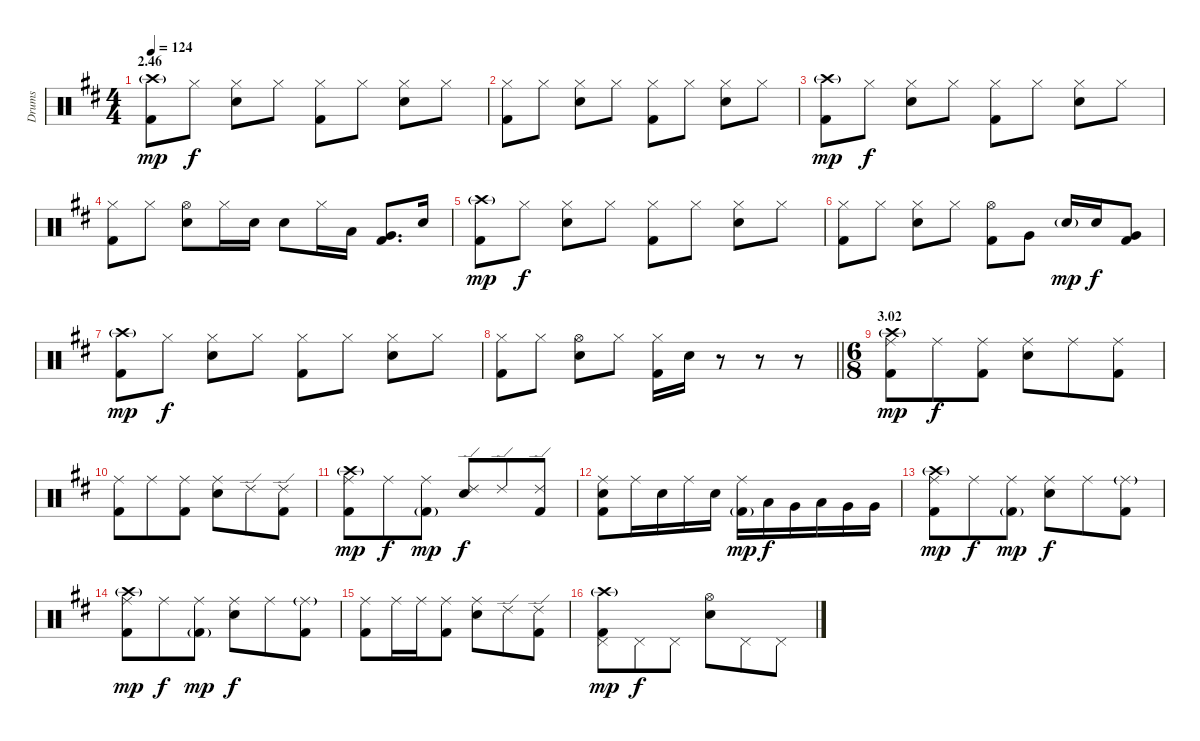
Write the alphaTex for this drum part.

\track ("Drums" "Drums") {instrument percussion}
\staff {score}
\articulation defaults
\ts (4 4)
\section ("" "2.46")
\tempo 124
\clef neutral
\ks d
("Crash high (hit)"{g} "Kick (hit) 2").8{dy mp} "Hi-Hat (closed)".8{dy f} ("Hi-Hat (closed)" "Electric Snare (hit)").8 "Hi-Hat (closed)".8 ("Hi-Hat (closed)" "Kick (hit) 2").8 "Hi-Hat (closed)".8 ("Hi-Hat (closed)" "Electric Snare (hit)").8 "Hi-Hat (closed)".8 |
("Hi-Hat (closed)" "Kick (hit) 2").8 "Hi-Hat (closed)".8 ("Hi-Hat (closed)" "Electric Snare (hit)").8 "Hi-Hat (closed)".8 ("Hi-Hat (closed)" "Kick (hit) 2").8 "Hi-Hat (closed)".8 ("Hi-Hat (closed)" "Electric Snare (hit)").8 "Hi-Hat (closed)".8 |
("Crash high (hit)"{g} "Kick (hit) 2").8{dy mp} "Hi-Hat (closed)".8{dy f} ("Hi-Hat (closed)" "Electric Snare (hit)").8 "Hi-Hat (closed)".8 ("Hi-Hat (closed)" "Kick (hit) 2").8 "Hi-Hat (closed)".8 ("Hi-Hat (closed)" "Electric Snare (hit)").8 "Hi-Hat (closed)".8 |
("Hi-Hat (closed)" "Kick (hit) 2").8 "Hi-Hat (closed)".8 ("Hi-Hat (open)" "Electric Snare (hit)").8 "Hi-Hat (closed)".16 "Electric Snare (hit)".16 "Electric Snare (hit)".8 "Hi-Hat (closed)".16 "Low Tom (hit)".16 ("Very Low Tom (hit)" "Kick (hit) 2").8{d} "Electric Snare (hit)".16 |
("Crash high (hit)"{g} "Kick (hit) 2").8{dy mp} "Hi-Hat (closed)".8{dy f} ("Hi-Hat (closed)" "Electric Snare (hit)").8 "Hi-Hat (closed)".8 ("Hi-Hat (closed)" "Kick (hit) 2").8 "Hi-Hat (closed)".8 ("Hi-Hat (closed)" "Electric Snare (hit)").8 "Hi-Hat (closed)".8 |
("Hi-Hat (closed)" "Kick (hit) 2").8 "Hi-Hat (closed)".8 ("Hi-Hat (closed)" "Electric Snare (hit)").8 "Hi-Hat (closed)".8 ("Hi-Hat (open)" "Kick (hit) 2").8 "Very Low Tom (hit)".8 "Electric Snare (hit)"{g}.16{dy mp} "Electric Snare (hit)".16{dy f} ("Very Low Tom (hit)" "Kick (hit) 2").8 |
("Crash high (hit)"{g} "Kick (hit) 2").8{dy mp} "Hi-Hat (closed)".8{dy f} ("Hi-Hat (closed)" "Electric Snare (hit)").8 "Hi-Hat (closed)".8 ("Hi-Hat (closed)" "Kick (hit) 2").8 "Hi-Hat (closed)".8 ("Hi-Hat (closed)" "Electric Snare (hit)").8 "Hi-Hat (closed)".8 |
\barLineRight lightlight
("Hi-Hat (closed)" "Kick (hit) 2").8 "Hi-Hat (closed)".8 ("Hi-Hat (open)" "Electric Snare (hit)").8 "Hi-Hat (closed)".8 ("Hi-Hat (closed)" "Kick (hit) 2").16 "Electric Snare (hit)".16 r.8 r.8 r.8 |
\ts (6 8)
\section ("" "3.02")
("Crash high (hit)"{g} "Ride (middle)" "Kick (hit) 2").8{dy mp} "Ride (middle)".8{dy f} ("Ride (middle)" "Kick (hit) 2").8 ("Ride (middle)" "Electric Snare (hit)").8 "Ride (middle)".8 ("Ride (middle)" "Kick (hit) 2").8 |
("Ride (middle)" "Kick (hit) 2").8 "Ride (middle)".8 ("Ride (middle)" "Kick (hit) 2").8 ("Ride (middle)" "Electric Snare (hit)").8 "Ride (edge) 2".8 ("Ride (edge) 2" "Kick (hit) 2").8 |
("Crash high (hit)"{g} "Ride (middle)" "Kick (hit) 2").8{dy mp} "Ride (middle)".8{dy f} ("Ride (middle)" "Kick (hit) 2"{g}).8{dy mp} ("Ride (edge) 2" "Electric Snare (hit)").8{dy f} "Ride (edge) 2".8 ("Ride (edge) 2" "Kick (hit) 2").8 |
("Ride (middle)" "Electric Snare (hit)" "Kick (hit) 2").8 "Ride (middle)".16 "Electric Snare (hit)".16 "Ride (middle)".16 "Electric Snare (hit)".16 ("Ride (middle)" "Kick (hit) 2"{g}).16{dy mp} "Low Tom (hit)".16{dy f} "Very Low Tom (hit)".16 "Low Tom (hit)".16 "Very Low Tom (hit)".16 "Very Low Tom (hit)".16 |
("Crash high (hit)"{g} "Ride (middle)" "Kick (hit) 2").8{dy mp} "Ride (middle)".8{dy f} ("Ride (middle)" "Kick (hit) 2"{g}).8{dy mp} ("Ride (middle)" "Electric Snare (hit)").8{dy f} "Ride (middle)".8 ("Ride (middle)"{g} "Kick (hit) 2").8 |
("Crash high (hit)"{g} "Ride (middle)" "Kick (hit) 2").8{dy mp} "Ride (middle)".8{dy f} ("Ride (middle)" "Kick (hit) 2"{g}).8{dy mp} ("Ride (middle)" "Electric Snare (hit)").8{dy f} "Ride (middle)".8 ("Ride (middle)"{g} "Kick (hit) 2").8 |
("Ride (middle)" "Kick (hit) 2").8 "Ride (middle)".16 "Ride (middle)".16 ("Ride (middle)" "Kick (hit) 2").8 ("Ride (middle)" "Electric Snare (hit)").8 "Ride (edge) 2".8 ("Ride (edge) 2" "Kick (hit) 2").8 |
("Crash high (hit)"{g} "Pedal Hi-Hat (hit)" "Kick (hit) 2").8{dy mp} "Pedal Hi-Hat (hit)".8{dy f} "Pedal Hi-Hat (hit)".8 ("Hi-Hat (open)" "Electric Snare (hit)").8 "Pedal Hi-Hat (hit)".8 "Pedal Hi-Hat (hit)".8
